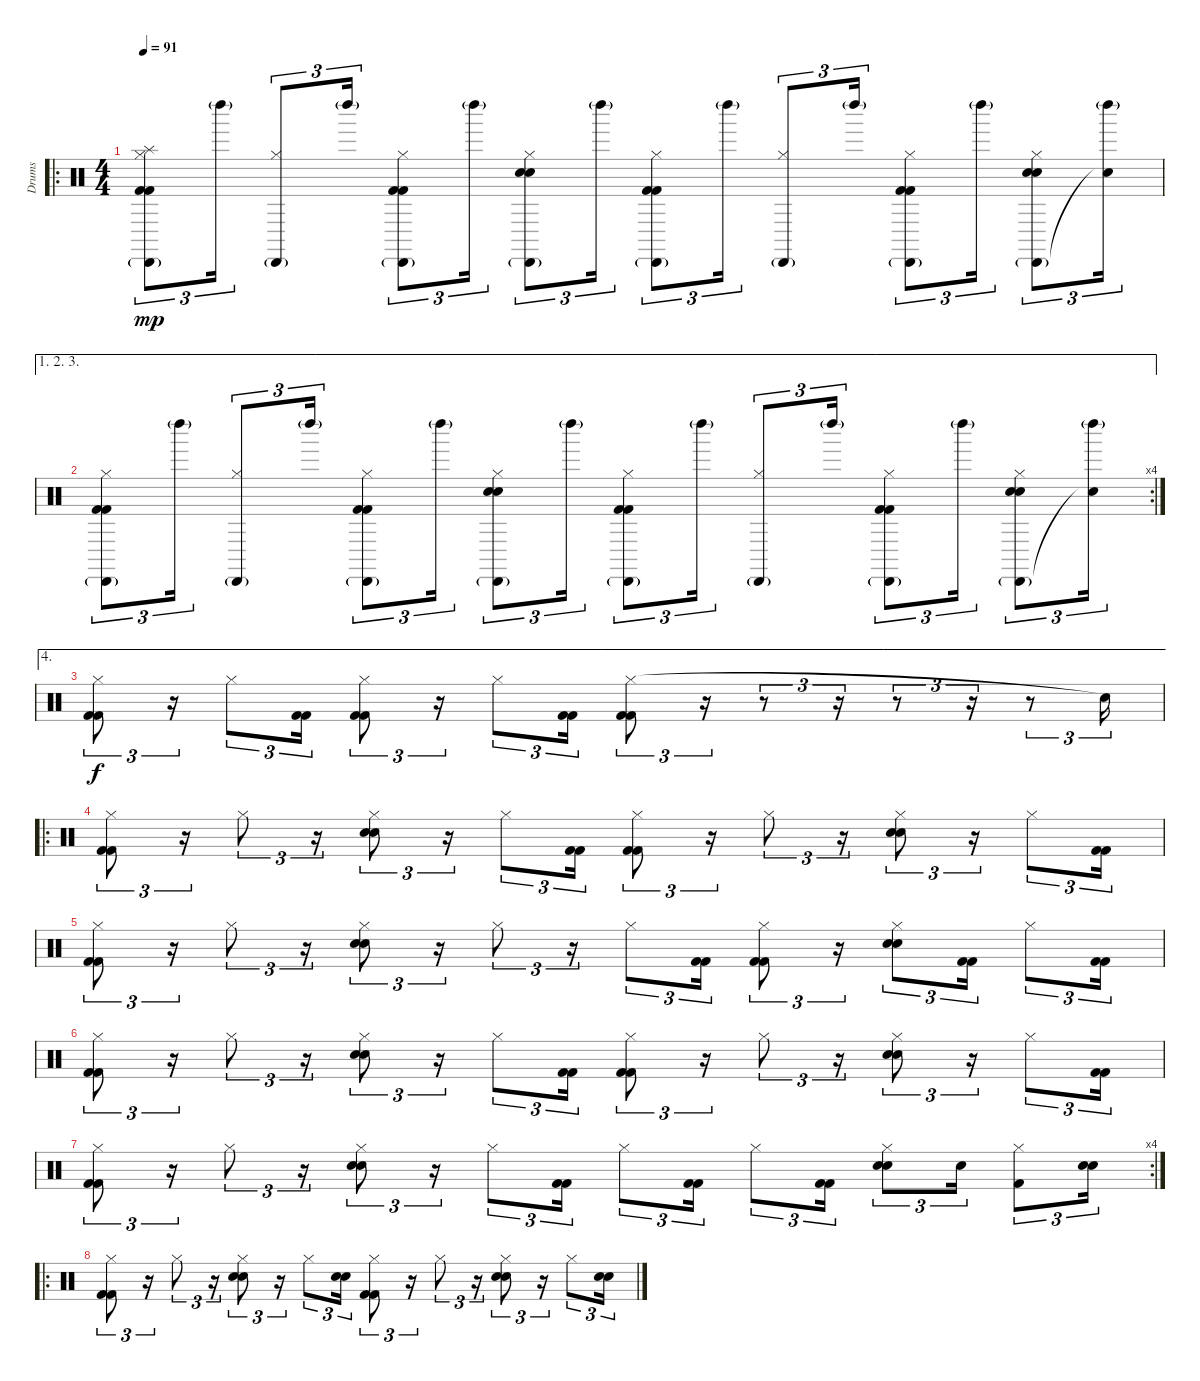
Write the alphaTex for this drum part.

\track ("Drums" "Drums") {instrument percussion}
\staff {score}
\articulation defaults
\ro
\ts (4 4)
\tempo 91
\clef neutral
\ks c
("Hi-Hat (closed)" "Cabasa (hit)"{g} "Kick (hit) 2" "Kick (hit) 2" "Splash (hit)").8{tu (3 2) dy mp} "Left Maraca (hit)"{g}.16{tu (3 2)} ("Hi-Hat (closed)" "Cabasa (hit)"{g}).8{tu (3 2)} "Left Maraca (hit)"{g}.16{tu (3 2)} ("Hi-Hat (closed)" "Cabasa (hit)"{g} "Kick (hit) 2" "Kick (hit) 2").8{tu (3 2)} "Left Maraca (hit)"{g}.16{tu (3 2)} ("Hi-Hat (closed)" "Cabasa (hit)"{g} "Electric Snare (hit)" "Electric Snare (hit)").8{tu (3 2)} "Left Maraca (hit)"{g}.16{tu (3 2)} ("Hi-Hat (closed)" "Cabasa (hit)"{g} "Kick (hit) 2" "Kick (hit) 2").8{tu (3 2)} "Left Maraca (hit)"{g}.16{tu (3 2)} ("Hi-Hat (closed)" "Cabasa (hit)"{g}).8{tu (3 2)} "Left Maraca (hit)"{g}.16{tu (3 2)} ("Hi-Hat (closed)" "Cabasa (hit)"{g} "Kick (hit) 2" "Kick (hit) 2").8{tu (3 2)} "Left Maraca (hit)"{g}.16{tu (3 2)} ("Hi-Hat (closed)" "Cabasa (hit)"{g} "Electric Snare (hit)" "Electric Snare (hit)").8{tu (3 2)} ("Left Maraca (hit)"{g} "Snare (hit)"{t}).16{tu (3 2)} |
\ae (1 2 3)
\rc 4
("Hi-Hat (closed)" "Cabasa (hit)"{g} "Kick (hit) 2" "Kick (hit) 2").8{tu (3 2)} "Left Maraca (hit)"{g}.16{tu (3 2)} ("Hi-Hat (closed)" "Cabasa (hit)"{g}).8{tu (3 2)} "Left Maraca (hit)"{g}.16{tu (3 2)} ("Hi-Hat (closed)" "Cabasa (hit)"{g} "Kick (hit) 2" "Kick (hit) 2").8{tu (3 2)} "Left Maraca (hit)"{g}.16{tu (3 2)} ("Hi-Hat (closed)" "Cabasa (hit)"{g} "Electric Snare (hit)" "Electric Snare (hit)").8{tu (3 2)} "Left Maraca (hit)"{g}.16{tu (3 2)} ("Hi-Hat (closed)" "Cabasa (hit)"{g} "Kick (hit) 2" "Kick (hit) 2").8{tu (3 2)} "Left Maraca (hit)"{g}.16{tu (3 2)} ("Hi-Hat (closed)" "Cabasa (hit)"{g}).8{tu (3 2)} "Left Maraca (hit)"{g}.16{tu (3 2)} ("Hi-Hat (closed)" "Cabasa (hit)"{g} "Kick (hit) 2" "Kick (hit) 2").8{tu (3 2)} "Left Maraca (hit)"{g}.16{tu (3 2)} ("Hi-Hat (closed)" "Cabasa (hit)"{g} "Electric Snare (hit)" "Electric Snare (hit)").8{tu (3 2)} ("Left Maraca (hit)"{g} "Snare (hit)"{t}).16{tu (3 2)} |
\ae 4
("Hi-Hat (closed)" "Kick (hit) 2" "Kick (hit) 2").8{tu (3 2) dy f} r.16{tu (3 2)} "Hi-Hat (closed)".8{tu (3 2)} ("Kick (hit) 2" "Kick (hit) 2").16{tu (3 2)} ("Hi-Hat (closed)" "Kick (hit) 2" "Kick (hit) 2").8{tu (3 2)} r.16{tu (3 2)} "Hi-Hat (closed)".8{tu (3 2)} ("Kick (hit) 2" "Kick (hit) 2").16{tu (3 2)} ("Hi-Hat (closed)" "Kick (hit) 2" "Kick (hit) 2").8{tu (3 2)} r.16{tu (3 2)} r.8{tu (3 2)} r.16{tu (3 2)} r.8{tu (3 2)} r.16{tu (3 2)} r.8{tu (3 2)} "Snare (hit)"{t}.16{tu (3 2)} |
\ro
("Hi-Hat (closed)" "Kick (hit) 2" "Kick (hit) 2").8{tu (3 2)} r.16{tu (3 2)} "Hi-Hat (closed)".8{tu (3 2)} r.16{tu (3 2)} ("Hi-Hat (closed)" "Hand Clap (hit)" "Hand Clap (hit)").8{tu (3 2)} r.16{tu (3 2)} "Hi-Hat (closed)".8{tu (3 2)} ("Kick (hit) 2" "Kick (hit) 2").16{tu (3 2)} ("Hi-Hat (closed)" "Kick (hit) 2" "Kick (hit) 2").8{tu (3 2)} r.16{tu (3 2)} "Hi-Hat (closed)".8{tu (3 2)} r.16{tu (3 2)} ("Hi-Hat (closed)" "Hand Clap (hit)" "Hand Clap (hit)").8{tu (3 2)} r.16{tu (3 2)} "Hi-Hat (closed)".8{tu (3 2)} ("Kick (hit) 2" "Kick (hit) 2").16{tu (3 2)} |
("Hi-Hat (closed)" "Kick (hit) 2" "Kick (hit) 2").8{tu (3 2)} r.16{tu (3 2)} "Hi-Hat (closed)".8{tu (3 2)} r.16{tu (3 2)} ("Hi-Hat (closed)" "Hand Clap (hit)" "Hand Clap (hit)").8{tu (3 2)} r.16{tu (3 2)} "Hi-Hat (closed)".8{tu (3 2)} r.16{tu (3 2)} "Hi-Hat (closed)".8{tu (3 2)} ("Kick (hit) 2" "Kick (hit) 2").16{tu (3 2)} ("Hi-Hat (closed)" "Kick (hit) 2" "Kick (hit) 2").8{tu (3 2)} r.16{tu (3 2)} ("Hi-Hat (closed)" "Hand Clap (hit)" "Hand Clap (hit)").8{tu (3 2)} ("Kick (hit) 2" "Kick (hit) 2").16{tu (3 2)} "Hi-Hat (closed)".8{tu (3 2)} ("Kick (hit) 2" "Kick (hit) 2").16{tu (3 2)} |
("Hi-Hat (closed)" "Kick (hit) 2" "Kick (hit) 2").8{tu (3 2)} r.16{tu (3 2)} "Hi-Hat (closed)".8{tu (3 2)} r.16{tu (3 2)} ("Hi-Hat (closed)" "Hand Clap (hit)" "Hand Clap (hit)").8{tu (3 2)} r.16{tu (3 2)} "Hi-Hat (closed)".8{tu (3 2)} ("Kick (hit) 2" "Kick (hit) 2").16{tu (3 2)} ("Hi-Hat (closed)" "Kick (hit) 2" "Kick (hit) 2").8{tu (3 2)} r.16{tu (3 2)} "Hi-Hat (closed)".8{tu (3 2)} r.16{tu (3 2)} ("Hi-Hat (closed)" "Hand Clap (hit)" "Hand Clap (hit)").8{tu (3 2)} r.16{tu (3 2)} "Hi-Hat (closed)".8{tu (3 2)} ("Kick (hit) 2" "Kick (hit) 2").16{tu (3 2)} |
\rc 4
("Hi-Hat (closed)" "Kick (hit) 2" "Kick (hit) 2").8{tu (3 2)} r.16{tu (3 2)} "Hi-Hat (closed)".8{tu (3 2)} r.16{tu (3 2)} ("Hi-Hat (closed)" "Hand Clap (hit)" "Hand Clap (hit)").8{tu (3 2)} r.16{tu (3 2)} "Hi-Hat (closed)".8{tu (3 2)} ("Kick (hit) 2" "Kick (hit) 2").16{tu (3 2)} "Hi-Hat (closed)".8{tu (3 2)} ("Kick (hit) 2" "Kick (hit) 2").16{tu (3 2)} "Hi-Hat (closed)".8{tu (3 2)} ("Kick (hit) 2" "Kick (hit) 2").16{tu (3 2)} ("Hi-Hat (closed)" "Hand Clap (hit)" "Hand Clap (hit)").8{tu (3 2)} "Electric Snare (hit)".16{tu (3 2)} ("Hi-Hat (closed)" "Kick (hit) 2").8{tu (3 2)} ("Hand Clap (hit)" "Hand Clap (hit)").16{tu (3 2)} |
\ro
("Hi-Hat (closed)" "Kick (hit) 2" "Kick (hit) 2").8{tu (3 2)} r.16{tu (3 2)} "Hi-Hat (closed)".8{tu (3 2)} r.16{tu (3 2)} ("Hi-Hat (closed)" "Electric Snare (hit)" "Electric Snare (hit)").8{tu (3 2)} r.16{tu (3 2)} "Hi-Hat (closed)".8{tu (3 2)} ("Electric Snare (hit)" "Electric Snare (hit)").16{tu (3 2)} ("Hi-Hat (closed)" "Kick (hit) 2" "Kick (hit) 2").8{tu (3 2)} r.16{tu (3 2)} "Hi-Hat (closed)".8{tu (3 2)} r.16{tu (3 2)} ("Hi-Hat (closed)" "Electric Snare (hit)" "Electric Snare (hit)").8{tu (3 2)} r.16{tu (3 2)} "Hi-Hat (closed)".8{tu (3 2)} ("Electric Snare (hit)" "Electric Snare (hit)").16{tu (3 2)}
